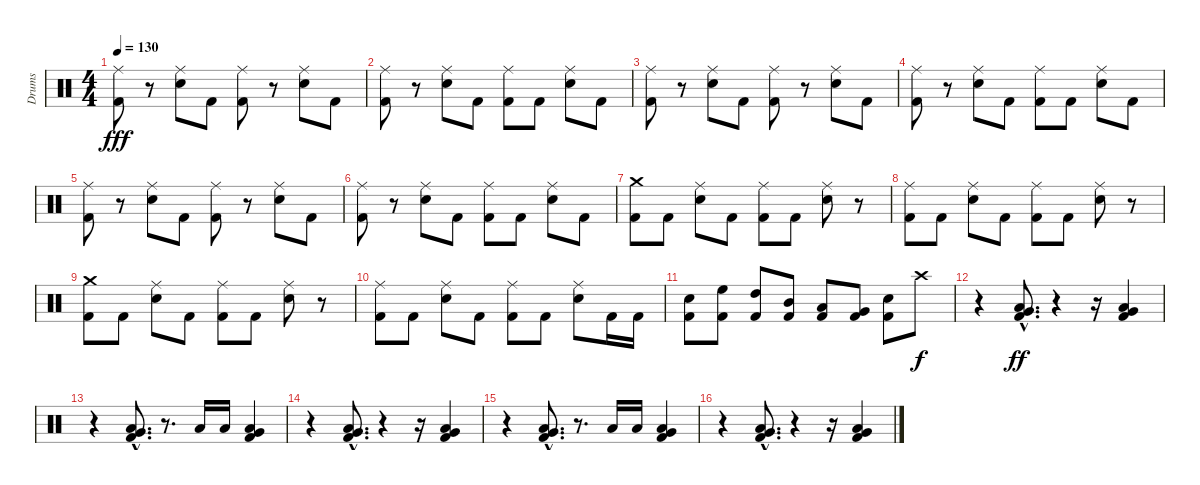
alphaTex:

\track ("Drums" "Drums") {instrument percussion}
\staff {score}
\articulation defaults
\ts (4 4)
\tempo 130
\clef neutral
\ks c
("Ride (middle)" "Kick (hit) 2").8{dy fff} r.8 ("Ride (middle)" "Electric Snare (hit)").8 "Kick (hit) 2".8 ("Ride (middle)" "Kick (hit) 2").8 r.8 ("Ride (middle)" "Electric Snare (hit)").8 "Kick (hit) 2".8 |
("Ride (middle)" "Kick (hit) 2").8 r.8 ("Ride (middle)" "Electric Snare (hit)").8 "Kick (hit) 2".8 ("Ride (middle)" "Kick (hit) 2").8 "Kick (hit) 2".8 ("Ride (middle)" "Electric Snare (hit)").8 "Kick (hit) 2".8 |
("Ride (middle)" "Kick (hit) 2").8 r.8 ("Ride (middle)" "Electric Snare (hit)").8 "Kick (hit) 2".8 ("Ride (middle)" "Kick (hit) 2").8 r.8 ("Ride (middle)" "Electric Snare (hit)").8 "Kick (hit) 2".8 |
("Ride (middle)" "Kick (hit) 2").8 r.8 ("Ride (middle)" "Electric Snare (hit)").8 "Kick (hit) 2".8 ("Ride (middle)" "Kick (hit) 2").8 "Kick (hit) 2".8 ("Ride (middle)" "Electric Snare (hit)").8 "Kick (hit) 2".8 |
("Ride (middle)" "Kick (hit) 2").8 r.8 ("Ride (middle)" "Electric Snare (hit)").8 "Kick (hit) 2".8 ("Ride (middle)" "Kick (hit) 2").8 r.8 ("Ride (middle)" "Electric Snare (hit)").8 "Kick (hit) 2".8 |
("Ride (middle)" "Kick (hit) 2").8 r.8 ("Ride (middle)" "Electric Snare (hit)").8 "Kick (hit) 2".8 ("Ride (middle)" "Kick (hit) 2").8 "Kick (hit) 2".8 ("Ride (middle)" "Electric Snare (hit)").8 "Kick (hit) 2".8 |
("Crash medium (hit)" "Kick (hit) 2").8 "Kick (hit) 2".8 ("Electric Snare (hit)" "Ride (middle)").8 "Kick (hit) 2".8 ("Ride (middle)" "Kick (hit) 2").8 "Kick (hit) 2".8 ("Ride (middle)" "Electric Snare (hit)").8 r.8 |
("Kick (hit) 2" "Ride (middle)").8 "Kick (hit) 2".8 ("Electric Snare (hit)" "Ride (middle)").8 "Kick (hit) 2".8 ("Kick (hit) 2" "Ride (middle)").8 "Kick (hit) 2".8 ("Electric Snare (hit)" "Ride (middle)").8 r.8 |
("Kick (hit) 2" "Crash medium (hit)").8 "Kick (hit) 2".8 ("Electric Snare (hit)" "Ride (middle)").8 "Kick (hit) 2".8 ("Kick (hit) 2" "Ride (middle)").8 "Kick (hit) 2".8 ("Electric Snare (hit)" "Ride (middle)").8 r.8 |
("Ride (middle)" "Kick (hit) 2").8 "Kick (hit) 2".8 ("Ride (middle)" "Electric Snare (hit)").8 "Kick (hit) 2".8 ("Ride (middle)" "Kick (hit) 2").8 "Kick (hit) 2".8 ("Ride (middle)" "Electric Snare (hit)").8 "Kick (hit) 2".16 "Kick (hit) 2".16 |
("Kick (hit) 2" "Electric Snare (hit)").8 ("Kick (hit) 2" "High Floor Tom (hit)").8 ("Kick (hit) 2" "High Tom (hit)").8 ("Kick (hit) 2" "Mid Tom (hit)").8 ("Kick (hit) 2" "Low Tom (hit)").8 ("Kick (hit) 2" "Very Low Tom (hit)").8 ("Kick (hit) 2" "Electric Snare (hit)").8 "Crash high (hit)".8{dy f} |
r.4 ("Low Tom (hit)"{hac} "Very Low Tom (hit)"{hac} "Kick (hit) 2"{hac}).8{d dy ff} r.4 r.16 ("Low Tom (hit)" "Very Low Tom (hit)" "Kick (hit) 2").4 |
r.4 ("Low Tom (hit)"{hac} "Very Low Tom (hit)"{hac} "Kick (hit) 2"{hac}).8{d} r.8{d} "Low Tom (hit)".16 "Low Tom (hit)".16 ("Low Tom (hit)" "Very Low Tom (hit)" "Kick (hit) 2").4 |
r.4 ("Low Tom (hit)"{hac} "Very Low Tom (hit)"{hac} "Kick (hit) 2"{hac}).8{d} r.4 r.16 ("Low Tom (hit)" "Very Low Tom (hit)" "Kick (hit) 2").4 |
r.4 ("Low Tom (hit)"{hac} "Very Low Tom (hit)"{hac} "Kick (hit) 2"{hac}).8{d} r.8{d} "Low Tom (hit)".16 "Low Tom (hit)".16 ("Low Tom (hit)" "Very Low Tom (hit)" "Kick (hit) 2").4 |
r.4 ("Low Tom (hit)"{hac} "Very Low Tom (hit)"{hac} "Kick (hit) 2"{hac}).8{d} r.4 r.16 ("Low Tom (hit)" "Very Low Tom (hit)" "Kick (hit) 2").4
